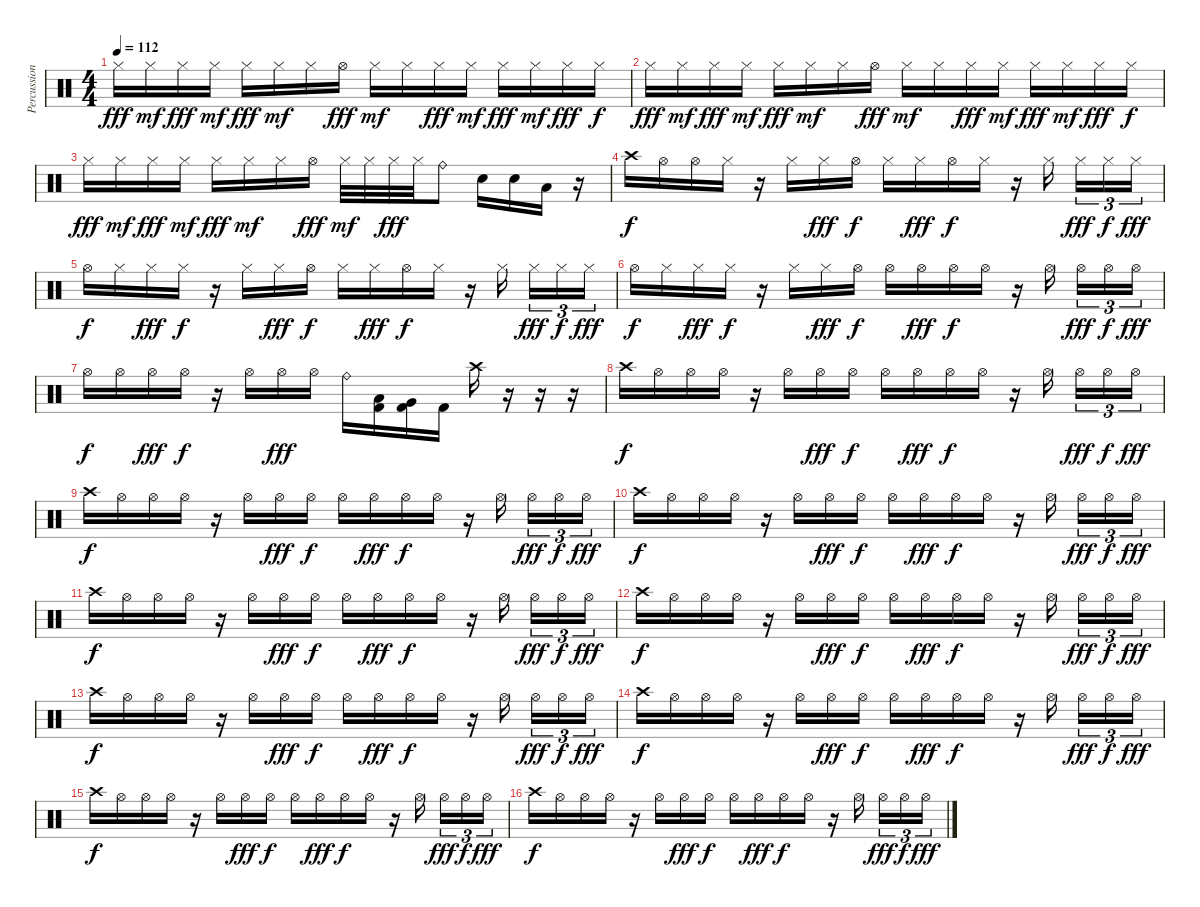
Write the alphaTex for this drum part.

\track ("Percussion" "Percussion") {instrument percussion}
\staff {score}
\articulation defaults
\ts (4 4)
\tempo 112
\clef neutral
\ks c "Hi-Hat (closed)".16{dy fff} "Hi-Hat (closed)".16{dy mf} "Hi-Hat (closed)".16{dy fff} "Hi-Hat (closed)".16{dy mf} "Hi-Hat (closed)".16{dy fff} "Hi-Hat (closed)".16{dy mf} "Hi-Hat (closed)".16 "Hi-Hat (open)".16{dy fff} "Hi-Hat (closed)".16{dy mf} "Hi-Hat (closed)".16 "Hi-Hat (closed)".16{dy fff} "Hi-Hat (closed)".16{dy mf} "Hi-Hat (closed)".16{dy fff} "Hi-Hat (closed)".16{dy mf} "Hi-Hat (closed)".16{dy fff} "Hi-Hat (closed)".16{dy f}
|
"Hi-Hat (closed)".16{dy fff} "Hi-Hat (closed)".16{dy mf} "Hi-Hat (closed)".16{dy fff} "Hi-Hat (closed)".16{dy mf} "Hi-Hat (closed)".16{dy fff} "Hi-Hat (closed)".16{dy mf} "Hi-Hat (closed)".16 "Hi-Hat (open)".16{dy fff} "Hi-Hat (closed)".16{dy mf} "Hi-Hat (closed)".16 "Hi-Hat (closed)".16{dy fff} "Hi-Hat (closed)".16{dy mf} "Hi-Hat (closed)".16{dy fff} "Hi-Hat (closed)".16{dy mf} "Hi-Hat (closed)".16{dy fff} "Hi-Hat (closed)".16{dy f} |
"Hi-Hat (closed)".16{dy fff} "Hi-Hat (closed)".16{dy mf} "Hi-Hat (closed)".16{dy fff} "Hi-Hat (closed)".16{dy mf} "Hi-Hat (closed)".16{dy fff} "Hi-Hat (closed)".16{dy mf} "Hi-Hat (closed)".16 "Hi-Hat (open)".16{dy fff} "Hi-Hat (closed)".32{dy mf} "Hi-Hat (closed)".32 "Hi-Hat (closed)".32{dy fff} "Hi-Hat (closed)".32 "Ride (bell)".8 "Snare (hit) 2".16 "Snare (hit) 2".16 "Low Tom (hit)".16 r.16 |
"Crash high (hit)".16{dy f} "Hi-Hat (open)".16 "Hi-Hat (open)".16 "Hi-Hat (closed)".16 r.16 "Hi-Hat (closed)".16 "Hi-Hat (closed)".16{dy fff} "Hi-Hat (open)".16{dy f} "Hi-Hat (closed)".16 "Hi-Hat (closed)".16{dy fff} "Hi-Hat (open)".16{dy f} "Hi-Hat (closed)".16 r.16 "Hi-Hat (closed)".16{beam splitsecondary} "Hi-Hat (closed)".16{tu (3 2) dy fff} "Hi-Hat (closed)".16{tu (3 2) dy f} "Hi-Hat (closed)".16{tu (3 2) dy fff} |
"Hi-Hat (open)".16{dy f} "Hi-Hat (closed)".16 "Hi-Hat (closed)".16{dy fff} "Hi-Hat (closed)".16{dy f} r.16 "Hi-Hat (closed)".16 "Hi-Hat (closed)".16{dy fff} "Hi-Hat (open)".16{dy f} "Hi-Hat (closed)".16 "Hi-Hat (closed)".16{dy fff} "Hi-Hat (open)".16{dy f} "Hi-Hat (closed)".16 r.16 "Hi-Hat (closed)".16{beam splitsecondary} "Hi-Hat (closed)".16{tu (3 2) dy fff} "Hi-Hat (closed)".16{tu (3 2) dy f} "Hi-Hat (closed)".16{tu (3 2) dy fff} |
"Hi-Hat (open)".16{dy f} "Hi-Hat (closed)".16 "Hi-Hat (closed)".16{dy fff} "Hi-Hat (closed)".16{dy f} r.16 "Hi-Hat (closed)".16 "Hi-Hat (closed)".16{dy fff} "Hi-Hat (open)".16{dy f} "Hi-Hat (open)".16 "Hi-Hat (open)".16{dy fff} "Hi-Hat (open)".16{dy f} "Hi-Hat (open)".16 r.16 "Hi-Hat (open)".16{beam splitsecondary} "Hi-Hat (open)".16{tu (3 2) dy fff} "Hi-Hat (open)".16{tu (3 2) dy f} "Hi-Hat (open)".16{tu (3 2) dy fff} |
"Hi-Hat (open)".16{dy f} "Hi-Hat (open)".16 "Hi-Hat (open)".16{dy fff} "Hi-Hat (open)".16{dy f} r.16 "Hi-Hat (open)".16 "Hi-Hat (open)".16{dy fff} "Hi-Hat (open)".16 "Ride (bell)".16 ("Kick (hit) 2" "Low Tom (hit)").16 ("Kick (hit) 2" "Very Low Tom (hit)").16 "Kick (hit) 2".16 "Crash high (hit)".16 r.16 r.16 r.16 |
"Crash high (hit)".16{dy f} "Hi-Hat (open)".16 "Hi-Hat (open)".16 "Hi-Hat (open)".16 r.16 "Hi-Hat (open)".16 "Hi-Hat (open)".16{dy fff} "Hi-Hat (open)".16{dy f} "Hi-Hat (open)".16 "Hi-Hat (open)".16{dy fff} "Hi-Hat (open)".16{dy f} "Hi-Hat (open)".16 r.16 "Hi-Hat (open)".16{beam splitsecondary} "Hi-Hat (open)".16{tu (3 2) dy fff} "Hi-Hat (open)".16{tu (3 2) dy f} "Hi-Hat (open)".16{tu (3 2) dy fff} |
"Crash high (hit)".16{dy f} "Hi-Hat (open)".16 "Hi-Hat (open)".16 "Hi-Hat (open)".16 r.16 "Hi-Hat (open)".16 "Hi-Hat (open)".16{dy fff} "Hi-Hat (open)".16{dy f} "Hi-Hat (open)".16 "Hi-Hat (open)".16{dy fff} "Hi-Hat (open)".16{dy f} "Hi-Hat (open)".16 r.16 "Hi-Hat (open)".16{beam splitsecondary} "Hi-Hat (open)".16{tu (3 2) dy fff} "Hi-Hat (open)".16{tu (3 2) dy f} "Hi-Hat (open)".16{tu (3 2) dy fff} |
"Crash high (hit)".16{dy f} "Hi-Hat (open)".16 "Hi-Hat (open)".16 "Hi-Hat (open)".16 r.16 "Hi-Hat (open)".16 "Hi-Hat (open)".16{dy fff} "Hi-Hat (open)".16{dy f} "Hi-Hat (open)".16 "Hi-Hat (open)".16{dy fff} "Hi-Hat (open)".16{dy f} "Hi-Hat (open)".16 r.16 "Hi-Hat (open)".16{beam splitsecondary} "Hi-Hat (open)".16{tu (3 2) dy fff} "Hi-Hat (open)".16{tu (3 2) dy f} "Hi-Hat (open)".16{tu (3 2) dy fff} |
"Crash high (hit)".16{dy f} "Hi-Hat (open)".16 "Hi-Hat (open)".16 "Hi-Hat (open)".16 r.16 "Hi-Hat (open)".16 "Hi-Hat (open)".16{dy fff} "Hi-Hat (open)".16{dy f} "Hi-Hat (open)".16 "Hi-Hat (open)".16{dy fff} "Hi-Hat (open)".16{dy f} "Hi-Hat (open)".16 r.16 "Hi-Hat (open)".16{beam splitsecondary} "Hi-Hat (open)".16{tu (3 2) dy fff} "Hi-Hat (open)".16{tu (3 2) dy f} "Hi-Hat (open)".16{tu (3 2) dy fff} |
"Crash high (hit)".16{dy f} "Hi-Hat (open)".16 "Hi-Hat (open)".16 "Hi-Hat (open)".16 r.16 "Hi-Hat (open)".16 "Hi-Hat (open)".16{dy fff} "Hi-Hat (open)".16{dy f} "Hi-Hat (open)".16 "Hi-Hat (open)".16{dy fff} "Hi-Hat (open)".16{dy f} "Hi-Hat (open)".16 r.16 "Hi-Hat (open)".16{beam splitsecondary} "Hi-Hat (open)".16{tu (3 2) dy fff} "Hi-Hat (open)".16{tu (3 2) dy f} "Hi-Hat (open)".16{tu (3 2) dy fff} |
"Crash high (hit)".16{dy f} "Hi-Hat (open)".16 "Hi-Hat (open)".16 "Hi-Hat (open)".16 r.16 "Hi-Hat (open)".16 "Hi-Hat (open)".16{dy fff} "Hi-Hat (open)".16{dy f} "Hi-Hat (open)".16 "Hi-Hat (open)".16{dy fff} "Hi-Hat (open)".16{dy f} "Hi-Hat (open)".16 r.16 "Hi-Hat (open)".16{beam splitsecondary} "Hi-Hat (open)".16{tu (3 2) dy fff} "Hi-Hat (open)".16{tu (3 2) dy f} "Hi-Hat (open)".16{tu (3 2) dy fff} |
"Crash high (hit)".16{dy f} "Hi-Hat (open)".16 "Hi-Hat (open)".16 "Hi-Hat (open)".16 r.16 "Hi-Hat (open)".16 "Hi-Hat (open)".16{dy fff} "Hi-Hat (open)".16{dy f} "Hi-Hat (open)".16 "Hi-Hat (open)".16{dy fff} "Hi-Hat (open)".16{dy f} "Hi-Hat (open)".16 r.16 "Hi-Hat (open)".16{beam splitsecondary} "Hi-Hat (open)".16{tu (3 2) dy fff} "Hi-Hat (open)".16{tu (3 2) dy f} "Hi-Hat (open)".16{tu (3 2) dy fff} |
"Crash high (hit)".16{dy f} "Hi-Hat (open)".16 "Hi-Hat (open)".16 "Hi-Hat (open)".16 r.16 "Hi-Hat (open)".16 "Hi-Hat (open)".16{dy fff} "Hi-Hat (open)".16{dy f} "Hi-Hat (open)".16 "Hi-Hat (open)".16{dy fff} "Hi-Hat (open)".16{dy f} "Hi-Hat (open)".16 r.16 "Hi-Hat (open)".16{beam splitsecondary} "Hi-Hat (open)".16{tu (3 2) dy fff} "Hi-Hat (open)".16{tu (3 2) dy f} "Hi-Hat (open)".16{tu (3 2) dy fff} |
"Crash high (hit)".16{dy f} "Hi-Hat (open)".16 "Hi-Hat (open)".16 "Hi-Hat (open)".16 r.16 "Hi-Hat (open)".16 "Hi-Hat (open)".16{dy fff} "Hi-Hat (open)".16{dy f} "Hi-Hat (open)".16 "Hi-Hat (open)".16{dy fff} "Hi-Hat (open)".16{dy f} "Hi-Hat (open)".16 r.16 "Hi-Hat (open)".16{beam splitsecondary} "Hi-Hat (open)".16{tu (3 2) dy fff} "Hi-Hat (open)".16{tu (3 2) dy f} "Hi-Hat (open)".16{tu (3 2) dy fff}
